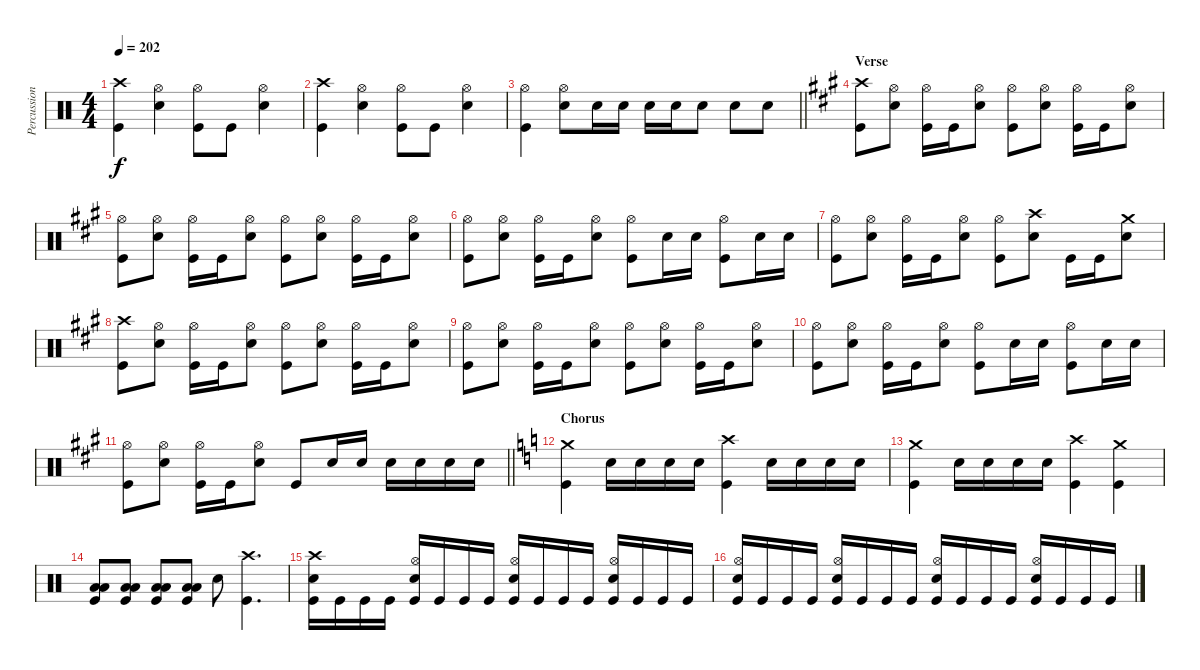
\track ("Percussion" "Percussion") {instrument percussion}
\staff {score}
\articulation defaults
\ts (4 4)
\tempo 202
\clef neutral
\ks c
("Crash high (hit)" "Kick (hit)").4{dy f} ("Hi-Hat (open)" "Electric Snare (hit)").4 ("Hi-Hat (open)" "Kick (hit)").8 "Kick (hit)".8 ("Hi-Hat (open)" "Electric Snare (hit)").4 |
("Crash high (hit)" "Kick (hit)").4 ("Hi-Hat (open)" "Electric Snare (hit)").4 ("Hi-Hat (open)" "Kick (hit)").8 "Kick (hit)".8 ("Hi-Hat (open)" "Electric Snare (hit)").4 |
\barLineRight lightlight
("Hi-Hat (open)" "Kick (hit)").4 ("Hi-Hat (open)" "Electric Snare (hit)").8 "Electric Snare (hit)".16 "Electric Snare (hit)".16 "Electric Snare (hit)".16 "Electric Snare (hit)".16 "Electric Snare (hit)".8 "Electric Snare (hit)".8 "Electric Snare (hit)".8 |
\section ("" "Verse")
\ks a
("Crash high (hit)" "Kick (hit)").8 ("Hi-Hat (open)" "Electric Snare (hit)").8 ("Hi-Hat (open)" "Kick (hit)").16 "Kick (hit)".16 ("Hi-Hat (open)" "Electric Snare (hit)").8 ("Hi-Hat (open)" "Kick (hit)").8 ("Hi-Hat (open)" "Electric Snare (hit)").8 ("Hi-Hat (open)" "Kick (hit)").16 "Kick (hit)".16 ("Hi-Hat (open)" "Electric Snare (hit)").8 |
("Hi-Hat (open)" "Kick (hit)").8 ("Hi-Hat (open)" "Electric Snare (hit)").8 ("Hi-Hat (open)" "Kick (hit)").16 "Kick (hit)".16 ("Hi-Hat (open)" "Electric Snare (hit)").8 ("Hi-Hat (open)" "Kick (hit)").8 ("Hi-Hat (open)" "Electric Snare (hit)").8 ("Hi-Hat (open)" "Kick (hit)").16 "Kick (hit)".16 ("Hi-Hat (open)" "Electric Snare (hit)").8 |
("Hi-Hat (open)" "Kick (hit)").8 ("Hi-Hat (open)" "Electric Snare (hit)").8 ("Hi-Hat (open)" "Kick (hit)").16 "Kick (hit)".16 ("Hi-Hat (open)" "Electric Snare (hit)").8 ("Hi-Hat (open)" "Kick (hit)").8 "Electric Snare (hit)".16 "Electric Snare (hit)".16 ("Hi-Hat (open)" "Kick (hit)").8 "Electric Snare (hit)".16 "Electric Snare (hit)".16 |
("Hi-Hat (open)" "Kick (hit)").8 ("Hi-Hat (open)" "Electric Snare (hit)").8 ("Hi-Hat (open)" "Kick (hit)").16 "Kick (hit)".16 ("Hi-Hat (open)" "Electric Snare (hit)").8 ("Hi-Hat (open)" "Kick (hit)").8 ("Crash high (hit)" "Electric Snare (hit)").8 "Kick (hit)".16 "Kick (hit)".16 ("Crash medium (hit)" "Electric Snare (hit)").8 |
("Crash high (hit)" "Kick (hit)").8 ("Hi-Hat (open)" "Electric Snare (hit)").8 ("Hi-Hat (open)" "Kick (hit)").16 "Kick (hit)".16 ("Hi-Hat (open)" "Electric Snare (hit)").8 ("Hi-Hat (open)" "Kick (hit)").8 ("Hi-Hat (open)" "Electric Snare (hit)").8 ("Hi-Hat (open)" "Kick (hit)").16 "Kick (hit)".16 ("Hi-Hat (open)" "Electric Snare (hit)").8 |
("Hi-Hat (open)" "Kick (hit)").8 ("Hi-Hat (open)" "Electric Snare (hit)").8 ("Hi-Hat (open)" "Kick (hit)").16 "Kick (hit)".16 ("Hi-Hat (open)" "Electric Snare (hit)").8 ("Hi-Hat (open)" "Kick (hit)").8 ("Hi-Hat (open)" "Electric Snare (hit)").8 ("Hi-Hat (open)" "Kick (hit)").16 "Kick (hit)".16 ("Hi-Hat (open)" "Electric Snare (hit)").8 |
("Hi-Hat (open)" "Kick (hit)").8 ("Hi-Hat (open)" "Electric Snare (hit)").8 ("Hi-Hat (open)" "Kick (hit)").16 "Kick (hit)".16 ("Hi-Hat (open)" "Electric Snare (hit)").8 ("Hi-Hat (open)" "Kick (hit)").8 "Electric Snare (hit)".16 "Electric Snare (hit)".16 ("Hi-Hat (open)" "Kick (hit)").8 "Electric Snare (hit)".16 "Electric Snare (hit)".16 |
\barLineRight lightlight
("Hi-Hat (open)" "Kick (hit)").8 ("Hi-Hat (open)" "Electric Snare (hit)").8 ("Hi-Hat (open)" "Kick (hit)").16 "Kick (hit)".16 ("Hi-Hat (open)" "Electric Snare (hit)").8 "Kick (hit)".8 "Electric Snare (hit)".16 "Electric Snare (hit)".16 "Electric Snare (hit)".16 "Electric Snare (hit)".16 "Electric Snare (hit)".16 "Electric Snare (hit)".16 |
\section ("" "Chorus")
\ks c
("Crash medium (hit)" "Kick (hit)").4 "Electric Snare (hit)".16 "Electric Snare (hit)".16 "Electric Snare (hit)".16 "Electric Snare (hit)".16 ("Crash high (hit)" "Kick (hit)").4 "Electric Snare (hit)".16 "Electric Snare (hit)".16 "Electric Snare (hit)".16 "Electric Snare (hit)".16 |
("Crash medium (hit)" "Kick (hit)").4 "Electric Snare (hit)".16 "Electric Snare (hit)".16 "Electric Snare (hit)".16 "Electric Snare (hit)".16 ("Crash high (hit)" "Kick (hit)").4 ("Crash medium (hit)" "Kick (hit)").4 |
("Low Tom (hit)" "Low Floor Tom (hit)" "Kick (hit)").8 ("Low Tom (hit)" "Low Floor Tom (hit)" "Kick (hit)").8 ("Low Tom (hit)" "Low Floor Tom (hit)" "Kick (hit)").8 ("Low Tom (hit)" "Low Floor Tom (hit)" "Kick (hit)").8 "Electric Snare (hit)".8 ("Crash high (hit)" "Kick (hit)").4{d} |
("Crash high (hit)" "Electric Snare (hit)" "Kick (hit)").16 "Kick (hit)".16 "Kick (hit)".16 "Kick (hit)".16 ("Hi-Hat (open)" "Electric Snare (hit)" "Kick (hit)").16 "Kick (hit)".16 "Kick (hit)".16 "Kick (hit)".16 ("Hi-Hat (open)" "Electric Snare (hit)" "Kick (hit)").16 "Kick (hit)".16 "Kick (hit)".16 "Kick (hit)".16 ("Hi-Hat (open)" "Electric Snare (hit)" "Kick (hit)").16 "Kick (hit)".16 "Kick (hit)".16 "Kick (hit)".16 |
("Hi-Hat (open)" "Electric Snare (hit)" "Kick (hit)").16 "Kick (hit)".16 "Kick (hit)".16 "Kick (hit)".16 ("Hi-Hat (open)" "Electric Snare (hit)" "Kick (hit)").16 "Kick (hit)".16 "Kick (hit)".16 "Kick (hit)".16 ("Hi-Hat (open)" "Electric Snare (hit)" "Kick (hit)").16 "Kick (hit)".16 "Kick (hit)".16 "Kick (hit)".16 ("Hi-Hat (open)" "Electric Snare (hit)" "Kick (hit)").16 "Kick (hit)".16 "Kick (hit)".16 "Kick (hit)".16
